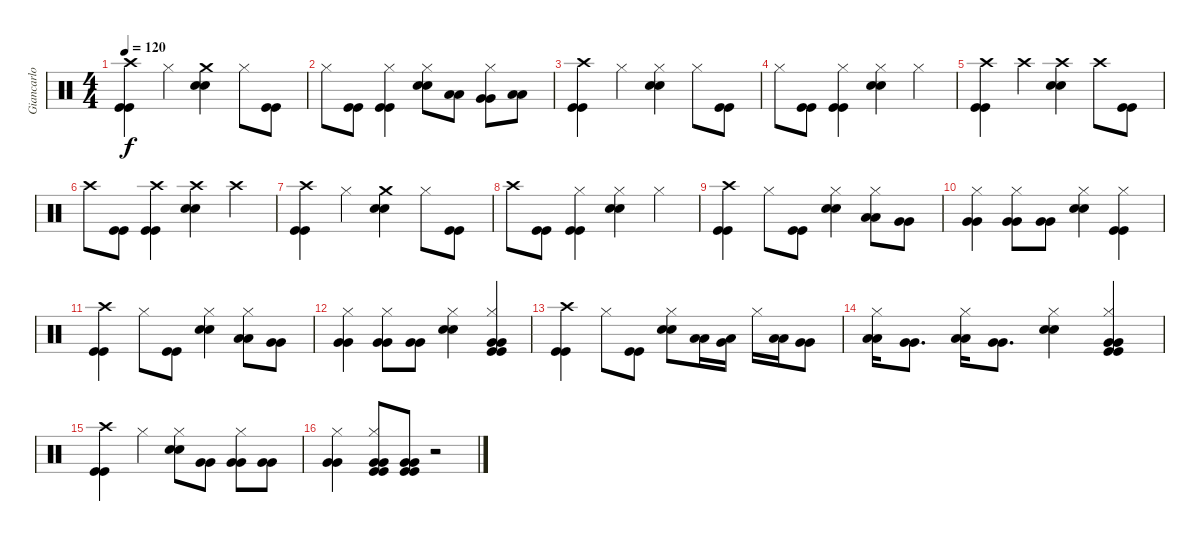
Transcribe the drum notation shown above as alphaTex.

\track ("Giancarlo Autenzio - Drums" "Giancarlo ") {instrument percussion}
\staff {score}
\articulation defaults
\ts (4 4)
\tempo 120
\clef neutral
\ks c
("Kick (hit)" "Kick (hit)" "Crash high (hit)").4{dy f} "Hi-Hat (closed)".4 ("Electric Snare (hit)" "Electric Snare (hit)" "Crash medium (hit)").4 "Hi-Hat (closed)".8 ("Kick (hit)" "Kick (hit)").8 |
"Hi-Hat (closed)".8 ("Kick (hit)" "Kick (hit)").8 ("Kick (hit)" "Kick (hit)" "Hi-Hat (closed)").4 ("Electric Snare (hit)" "Electric Snare (hit)" "Hi-Hat (closed)").8 ("Low Tom (hit)" "Low Tom (hit)").8 ("Very Low Tom (hit)" "Very Low Tom (hit)" "Hi-Hat (closed)").8 ("Low Floor Tom (hit)" "Low Floor Tom (hit)").8 |
("Kick (hit)" "Kick (hit)" "Crash high (hit)").4 "Hi-Hat (closed)".4 ("Electric Snare (hit)" "Electric Snare (hit)" "Hi-Hat (closed)").4 "Hi-Hat (closed)".8 ("Kick (hit)" "Kick (hit)").8 |
"Hi-Hat (closed)".8 ("Kick (hit)" "Kick (hit)").8 ("Kick (hit)" "Kick (hit)" "Hi-Hat (closed)").4 ("Electric Snare (hit)" "Electric Snare (hit)" "Hi-Hat (closed)").4 "Hi-Hat (closed)".4 |
("Kick (hit)" "Kick (hit)" "Crash high (hit)").4 "Crash high (hit)".4 ("Electric Snare (hit)" "Electric Snare (hit)" "Crash high (hit)").4 "Crash high (hit)".8 ("Kick (hit)" "Kick (hit)").8 |
"Crash high (hit)".8 ("Kick (hit)" "Kick (hit)").8 ("Kick (hit)" "Kick (hit)" "Crash high (hit)").4 ("Electric Snare (hit)" "Electric Snare (hit)" "Crash high (hit)").4 "Crash high (hit)".4 |
("Kick (hit)" "Kick (hit)" "Crash high (hit)").4 "Hi-Hat (closed)".4 ("Electric Snare (hit)" "Electric Snare (hit)" "Crash medium (hit)").4 "Hi-Hat (closed)".8 ("Kick (hit)" "Kick (hit)").8 |
"Crash high (hit)".8 ("Kick (hit)" "Kick (hit)").8 ("Kick (hit)" "Kick (hit)" "Hi-Hat (closed)").4 ("Electric Snare (hit)" "Electric Snare (hit)" "Hi-Hat (closed)").4 "Hi-Hat (closed)".4 |
("Kick (hit)" "Kick (hit)" "Crash high (hit)").4 "Hi-Hat (closed)".8 ("Kick (hit)" "Kick (hit)").8 ("Electric Snare (hit)" "Electric Snare (hit)" "Hi-Hat (closed)").4 ("Low Tom (hit)" "Low Tom (hit)" "Hi-Hat (closed)").8 ("Very Low Tom (hit)" "Very Low Tom (hit)").8 |
("Very Low Tom (hit)" "Very Low Tom (hit)" "Hi-Hat (closed)").4 ("Very Low Tom (hit)" "Very Low Tom (hit)" "Hi-Hat (closed)").8 ("Very Low Tom (hit)" "Very Low Tom (hit)").8 ("Electric Snare (hit)" "Electric Snare (hit)" "Hi-Hat (closed)").4 ("Kick (hit)" "Kick (hit)" "Hi-Hat (closed)").4 |
("Kick (hit)" "Kick (hit)" "Crash high (hit)").4 "Hi-Hat (closed)".8 ("Kick (hit)" "Kick (hit)").8 ("Electric Snare (hit)" "Electric Snare (hit)" "Hi-Hat (closed)").4 ("Low Tom (hit)" "Low Tom (hit)" "Hi-Hat (closed)").8 ("Very Low Tom (hit)" "Very Low Tom (hit)").8 |
("Very Low Tom (hit)" "Very Low Tom (hit)" "Hi-Hat (closed)").4 ("Very Low Tom (hit)" "Very Low Tom (hit)" "Hi-Hat (closed)").8 ("Very Low Tom (hit)" "Very Low Tom (hit)").8 ("Electric Snare (hit)" "Electric Snare (hit)" "Hi-Hat (closed)").4 ("Kick (hit)" "Kick (hit)" "Very Low Tom (hit)" "Very Low Tom (hit)" "Hi-Hat (closed)").4 |
("Kick (hit)" "Kick (hit)" "Crash high (hit)").4 "Hi-Hat (closed)".8 ("Kick (hit)" "Kick (hit)").8 ("Electric Snare (hit)" "Electric Snare (hit)" "Hi-Hat (closed)").8 ("Low Tom (hit)" "Low Tom (hit)").16 ("Low Tom (hit)" "Very Low Tom (hit)").16 "Hi-Hat (closed)".16 ("Low Tom (hit)" "Low Tom (hit)").16 ("Very Low Tom (hit)" "Very Low Tom (hit)").8 |
("Low Tom (hit)" "Low Tom (hit)" "Hi-Hat (closed)").16 ("Very Low Tom (hit)" "Very Low Tom (hit)").8{d} ("Low Tom (hit)" "Low Tom (hit)" "Hi-Hat (closed)").16 ("Very Low Tom (hit)" "Very Low Tom (hit)").8{d} ("Electric Snare (hit)" "Electric Snare (hit)" "Hi-Hat (closed)").4 ("Kick (hit)" "Kick (hit)" "Very Low Tom (hit)" "Very Low Tom (hit)" "Hi-Hat (closed)").4 |
("Kick (hit)" "Kick (hit)" "Crash high (hit)").4 "Hi-Hat (closed)".4 ("Electric Snare (hit)" "Electric Snare (hit)" "Hi-Hat (closed)").8 ("Very Low Tom (hit)" "Very Low Tom (hit)").8 ("Very Low Tom (hit)" "Very Low Tom (hit)" "Hi-Hat (closed)").8 ("Very Low Tom (hit)" "Very Low Tom (hit)").8 |
("Very Low Tom (hit)" "Very Low Tom (hit)" "Hi-Hat (closed)").4 ("Kick (hit)" "Kick (hit)" "Very Low Tom (hit)" "Very Low Tom (hit)" "Hi-Hat (closed)").8 ("Kick (hit)" "Kick (hit)" "Very Low Tom (hit)" "Very Low Tom (hit)").8 r.2
